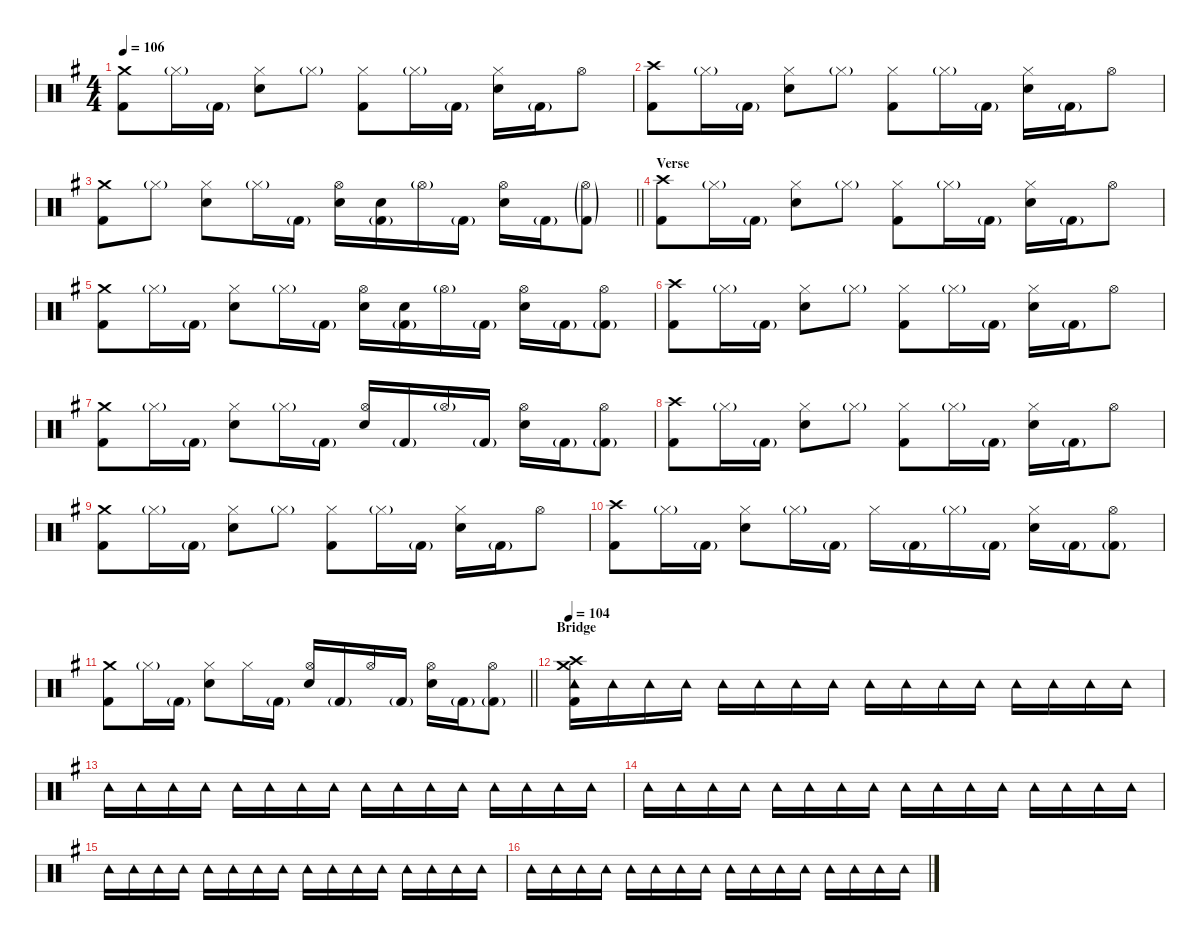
\defaultSystemsLayout 4
\hideDynamics
\bracketExtendMode nobrackets
\singleTrackTrackNamePolicy hidden
\multiTrackTrackNamePolicy hidden
\firstSystemTrackNameMode fullname
\firstSystemTrackNameOrientation horizontal
\otherSystemsTrackNameOrientation horizontal
\track ("Bill" "drm.") {instrument percussion}
\staff {score}
\articulation defaults
\ts (4 4)
\tempo 106
\clef neutral
\ks eminor
("Crash medium (hit)"{acc forcenatural} "Kick (hit) 2"{acc forcenatural}).8{dy f beam Down} "Hi-Hat (closed)"{g acc forcenatural}.16{dy mf beam Down} "Kick (hit) 2"{g acc forcenatural}.16{beam Down} ("Hi-Hat (closed)"{acc forcenatural} "Snare (hit) 2"{acc forcenatural}).8{dy f beam Down} "Hi-Hat (closed)"{g acc forcenatural}.8{dy mf beam Down} ("Hi-Hat (closed)"{acc forcenatural} "Kick (hit) 2"{acc forcenatural}).8{dy f beam Down} "Hi-Hat (closed)"{g acc forcenatural}.16{dy mf beam Down} "Kick (hit) 2"{g acc forcenatural}.16{beam Down} ("Hi-Hat (closed)"{acc forcenatural} "Snare (hit) 2"{acc forcenatural}).16{dy f beam Down} "Kick (hit) 2"{g acc forcenatural}.16{dy mf beam Down} "Hi-Hat (open)"{acc forcenatural}.8{beam Down} |
("Crash high (hit)"{acc forcenatural} "Kick (hit) 2"{acc forcenatural}).8{dy f beam Down} "Hi-Hat (closed)"{g acc forcenatural}.16{dy mf beam Down} "Kick (hit) 2"{g acc forcenatural}.16{beam Down} ("Hi-Hat (closed)"{acc forcenatural} "Snare (hit) 2"{acc forcenatural}).8{dy f beam Down} "Hi-Hat (closed)"{g acc forcenatural}.8{dy mf beam Down} ("Hi-Hat (closed)"{acc forcenatural} "Kick (hit) 2"{acc forcenatural}).8{dy f beam Down} "Hi-Hat (closed)"{g acc forcenatural}.16{dy mf beam Down} "Kick (hit) 2"{g acc forcenatural}.16{beam Down} ("Hi-Hat (closed)"{acc forcenatural} "Snare (hit) 2"{acc forcenatural}).16{dy f beam Down} "Kick (hit) 2"{g acc forcenatural}.16{dy mf beam Down} "Hi-Hat (open)"{acc forcenatural}.8{dy f beam Down} |
\barLineRight lightlight
("Crash medium (hit)"{acc forcenatural} "Kick (hit) 2"{acc forcenatural}).8{beam Down} "Hi-Hat (closed)"{g acc forcenatural}.8{dy mf beam Down} ("Hi-Hat (closed)"{acc forcenatural} "Snare (hit) 2"{acc forcenatural}).8{dy f beam Down} "Hi-Hat (closed)"{g acc forcenatural}.16{dy mf beam Down} "Kick (hit) 2"{g acc forcenatural}.16{beam Down} ("Hi-Hat (open)"{acc forcenatural} "Snare (hit) 2"{acc forcenatural}).16{dy f beam Down} ("Snare (hit) 2"{acc forcenatural} "Kick (hit) 2"{g acc forcenatural}).16{beam Down} "Hi-Hat (open)"{g acc forcenatural}.16{dy mf beam Down} "Kick (hit) 2"{g acc forcenatural}.16{beam Down} ("Hi-Hat (open)"{acc forcenatural} "Snare (hit) 2"{acc forcenatural}).16{dy f beam Down} "Kick (hit) 2"{g acc forcenatural}.16{dy mf beam Down} ("Hi-Hat (open)"{g acc forcenatural} "Kick (hit) 2"{g acc forcenatural}).8{beam Down} |
\section ("" "Verse")
("Crash high (hit)"{acc forcenatural} "Kick (hit) 2"{acc forcenatural}).8{dy f beam Down} "Hi-Hat (closed)"{g acc forcenatural}.16{dy mf beam Down} "Kick (hit) 2"{g acc forcenatural}.16{beam Down} ("Hi-Hat (closed)"{acc forcenatural} "Snare (hit) 2"{acc forcenatural}).8{dy f beam Down} "Hi-Hat (closed)"{g acc forcenatural}.8{dy mf beam Down} ("Hi-Hat (closed)"{acc forcenatural} "Kick (hit) 2"{acc forcenatural}).8{dy f beam Down} "Hi-Hat (closed)"{g acc forcenatural}.16{dy mf beam Down} "Kick (hit) 2"{g acc forcenatural}.16{beam Down} ("Hi-Hat (closed)"{acc forcenatural} "Snare (hit) 2"{acc forcenatural}).16{dy f beam Down} "Kick (hit) 2"{g acc forcenatural}.16{dy mf beam Down} "Hi-Hat (open)"{acc forcenatural}.8{dy f beam Down} |
("Crash medium (hit)"{acc forcenatural} "Kick (hit) 2"{acc forcenatural}).8{beam Down} "Hi-Hat (closed)"{g acc forcenatural}.16{dy mf beam Down} "Kick (hit) 2"{g acc forcenatural}.16{beam Down} ("Hi-Hat (closed)"{acc forcenatural} "Snare (hit) 2"{acc forcenatural}).8{dy f beam Down} "Hi-Hat (closed)"{g acc forcenatural}.16{dy mf beam Down} "Kick (hit) 2"{g acc forcenatural}.16{beam Down} ("Hi-Hat (open)"{acc forcenatural} "Snare (hit) 2"{acc forcenatural}).16{dy f beam Down} ("Snare (hit) 2"{acc forcenatural} "Kick (hit) 2"{g acc forcenatural}).16{beam Down} "Hi-Hat (open)"{g acc forcenatural}.16{beam Down} "Kick (hit) 2"{g acc forcenatural}.16{dy mf beam Down} ("Hi-Hat (open)"{acc forcenatural} "Snare (hit) 2"{acc forcenatural}).16{dy f beam Down} "Kick (hit) 2"{g acc forcenatural}.16{dy mf beam Down} ("Hi-Hat (open)"{acc forcenatural} "Kick (hit) 2"{g acc forcenatural}).8{dy f beam Down} |
("Crash high (hit)"{acc forcenatural} "Kick (hit) 2"{acc forcenatural}).8{beam Down} "Hi-Hat (closed)"{g acc forcenatural}.16{dy mf beam Down} "Kick (hit) 2"{g acc forcenatural}.16{beam Down} ("Hi-Hat (closed)"{acc forcenatural} "Snare (hit) 2"{acc forcenatural}).8{dy f beam Down} "Hi-Hat (closed)"{g acc forcenatural}.8{dy mf beam Down} ("Hi-Hat (closed)"{acc forcenatural} "Kick (hit) 2"{acc forcenatural}).8{dy f beam Down} "Hi-Hat (closed)"{g acc forcenatural}.16{dy mf beam Down} "Kick (hit) 2"{g acc forcenatural}.16{beam Down} ("Hi-Hat (closed)"{acc forcenatural} "Snare (hit) 2"{acc forcenatural}).16{dy f beam Down} "Kick (hit) 2"{g acc forcenatural}.16{dy mf beam Down} "Hi-Hat (open)"{acc forcenatural}.8{dy f beam Down} |
("Crash medium (hit)"{acc forcenatural} "Kick (hit) 2"{acc forcenatural}).8{beam Down} "Hi-Hat (closed)"{g acc forcenatural}.16{dy mf beam Down} "Kick (hit) 2"{g acc forcenatural}.16{beam Down} ("Hi-Hat (closed)"{acc forcenatural} "Snare (hit) 2"{acc forcenatural}).8{dy f beam Down} "Hi-Hat (closed)"{g acc forcenatural}.16{dy mf beam Down} "Kick (hit) 2"{g acc forcenatural}.16{beam Down} ("Hi-Hat (open)"{acc forcenatural} "Snare (hit) 2"{acc forcenatural}).16{dy f beam Up} "Kick (hit) 2"{g acc forcenatural}.16{dy mf beam Up} "Hi-Hat (open)"{g acc forcenatural}.16{dy f beam Up} "Kick (hit) 2"{g acc forcenatural}.16{dy mf beam Up} ("Hi-Hat (open)"{acc forcenatural} "Snare (hit) 2"{acc forcenatural}).16{dy f beam Down} "Kick (hit) 2"{g acc forcenatural}.16{dy mf beam Down} ("Hi-Hat (open)"{acc forcenatural} "Kick (hit) 2"{g acc forcenatural}).8{dy f beam Down} |
("Crash high (hit)"{acc forcenatural} "Kick (hit) 2"{acc forcenatural}).8{beam Down} "Hi-Hat (closed)"{g acc forcenatural}.16{dy mf beam Down} "Kick (hit) 2"{g acc forcenatural}.16{beam Down} ("Hi-Hat (closed)"{acc forcenatural} "Snare (hit) 2"{acc forcenatural}).8{dy f beam Down} "Hi-Hat (closed)"{g acc forcenatural}.8{dy mf beam Down} ("Hi-Hat (closed)"{acc forcenatural} "Kick (hit) 2"{acc forcenatural}).8{dy f beam Down} "Hi-Hat (closed)"{g acc forcenatural}.16{dy mf beam Down} "Kick (hit) 2"{g acc forcenatural}.16{beam Down} ("Hi-Hat (closed)"{acc forcenatural} "Snare (hit) 2"{acc forcenatural}).16{dy f beam Down} "Kick (hit) 2"{g acc forcenatural}.16{dy mf beam Down} "Hi-Hat (open)"{acc forcenatural}.8{dy f beam Down} |
("Crash medium (hit)"{acc forcenatural} "Kick (hit) 2"{acc forcenatural}).8{beam Down} "Hi-Hat (closed)"{g acc forcenatural}.16{dy mf beam Down} "Kick (hit) 2"{g acc forcenatural}.16{beam Down} ("Hi-Hat (closed)"{acc forcenatural} "Snare (hit) 2"{acc forcenatural}).8{dy f beam Down} "Hi-Hat (closed)"{g acc forcenatural}.8{dy mf beam Down} ("Hi-Hat (closed)"{acc forcenatural} "Kick (hit) 2"{acc forcenatural}).8{dy f beam Down} "Hi-Hat (closed)"{g acc forcenatural}.16{dy mf beam Down} "Kick (hit) 2"{g acc forcenatural}.16{beam Down} ("Hi-Hat (closed)"{acc forcenatural} "Snare (hit) 2"{acc forcenatural}).16{dy f beam Down} "Kick (hit) 2"{g acc forcenatural}.16{dy mf beam Down} "Hi-Hat (open)"{acc forcenatural}.8{dy f beam Down} |
("Crash high (hit)"{acc forcenatural} "Kick (hit) 2"{acc forcenatural}).8{beam Down} "Hi-Hat (closed)"{g acc forcenatural}.16{dy mf beam Down} "Kick (hit) 2"{g acc forcenatural}.16{beam Down} ("Hi-Hat (closed)"{acc forcenatural} "Snare (hit) 2"{acc forcenatural}).8{dy f beam Down} "Hi-Hat (closed)"{g acc forcenatural}.16{dy mf beam Down} "Kick (hit) 2"{g acc forcenatural}.16{beam Down} "Hi-Hat (closed)"{acc forcenatural}.16{dy f beam Down} "Kick (hit) 2"{g acc forcenatural}.16{dy mf beam Down} "Hi-Hat (closed)"{g acc forcenatural}.16{beam Down} "Kick (hit) 2"{g acc forcenatural}.16{beam Down} ("Hi-Hat (closed)"{acc forcenatural} "Snare (hit) 2"{acc forcenatural}).16{dy f beam Down} "Kick (hit) 2"{g acc forcenatural}.16{dy mf beam Down} ("Hi-Hat (open)"{acc forcenatural} "Kick (hit) 2"{g acc forcenatural}).8{dy f beam Down} |
\barLineRight lightlight
("Crash medium (hit)"{acc forcenatural} "Kick (hit) 2"{acc forcenatural}).8{beam Down} "Hi-Hat (closed)"{g acc forcenatural}.16{dy mf beam Down} "Kick (hit) 2"{g acc forcenatural}.16{beam Down} ("Hi-Hat (closed)"{acc forcenatural} "Snare (hit) 2"{acc forcenatural}).8{dy f beam Down} "Hi-Hat (closed)"{acc forcenatural}.16{beam Down} "Kick (hit) 2"{g acc forcenatural}.16{dy mf beam Down} ("Hi-Hat (open)"{acc forcenatural} "Snare (hit) 2"{acc forcenatural}).16{dy f beam Up} "Kick (hit) 2"{g acc forcenatural}.16{dy mf beam Up} "Hi-Hat (open)"{acc forcenatural}.16{beam Up} "Kick (hit) 2"{g acc forcenatural}.16{beam Up} ("Hi-Hat (open)"{acc forcenatural} "Snare (hit) 2"{acc forcenatural}).16{dy f beam Down} "Kick (hit) 2"{g acc forcenatural}.16{dy mf beam Down} ("Hi-Hat (open)"{acc forcenatural} "Kick (hit) 2"{g acc forcenatural}).8{beam Down} |
\section ("" "Bridge")
\tempo 104
("Crash high (hit)"{acc forcenatural} "Crash medium (hit)"{acc forcenatural} "Tambourine (hit)"{acc forcenatural} "Kick (hit) 2"{acc forcenatural}).16{dy f beam Down} "Tambourine (hit)"{acc forcenatural}.16{dy pp beam Down} "Tambourine (hit)"{acc forcenatural}.16{dy p beam Down} "Tambourine (hit)"{acc forcenatural}.16{dy pp beam Down} "Tambourine (hit)"{acc forcenatural}.16{dy mp beam Down} "Tambourine (hit)"{acc forcenatural}.16{dy pp beam Down} "Tambourine (hit)"{acc forcenatural}.16{dy p beam Down} "Tambourine (hit)"{acc forcenatural}.16{dy pp beam Down} "Tambourine (hit)"{acc forcenatural}.16{dy mp beam Down} "Tambourine (hit)"{acc forcenatural}.16{dy pp beam Down} "Tambourine (hit)"{acc forcenatural}.16{dy p beam Down} "Tambourine (hit)"{acc forcenatural}.16{dy pp beam Down} "Tambourine (hit)"{acc forcenatural}.16{dy mp beam Down} "Tambourine (hit)"{acc forcenatural}.16{dy pp beam Down} "Tambourine (hit)"{acc forcenatural}.16{dy p beam Down} "Tambourine (hit)"{acc forcenatural}.16{dy pp beam Down} |
"Tambourine (hit)"{acc forcenatural}.16{dy mp beam Down} "Tambourine (hit)"{acc forcenatural}.16{dy pp beam Down} "Tambourine (hit)"{acc forcenatural}.16{dy p beam Down} "Tambourine (hit)"{acc forcenatural}.16{dy pp beam Down} "Tambourine (hit)"{acc forcenatural}.16{dy mp beam Down} "Tambourine (hit)"{acc forcenatural}.16{dy pp beam Down} "Tambourine (hit)"{acc forcenatural}.16{dy p beam Down} "Tambourine (hit)"{acc forcenatural}.16{dy pp beam Down} "Tambourine (hit)"{acc forcenatural}.16{dy mp beam Down} "Tambourine (hit)"{acc forcenatural}.16{dy pp beam Down} "Tambourine (hit)"{acc forcenatural}.16{dy p beam Down} "Tambourine (hit)"{acc forcenatural}.16{dy pp beam Down} "Tambourine (hit)"{acc forcenatural}.16{dy mp beam Down} "Tambourine (hit)"{acc forcenatural}.16{dy pp beam Down} "Tambourine (hit)"{acc forcenatural}.16{dy p beam Down} "Tambourine (hit)"{acc forcenatural}.16{dy pp beam Down} |
"Tambourine (hit)"{acc forcenatural}.16{dy mp beam Down} "Tambourine (hit)"{acc forcenatural}.16{dy pp beam Down} "Tambourine (hit)"{acc forcenatural}.16{dy p beam Down} "Tambourine (hit)"{acc forcenatural}.16{dy pp beam Down} "Tambourine (hit)"{acc forcenatural}.16{dy mp beam Down} "Tambourine (hit)"{acc forcenatural}.16{dy pp beam Down} "Tambourine (hit)"{acc forcenatural}.16{dy p beam Down} "Tambourine (hit)"{acc forcenatural}.16{dy pp beam Down} "Tambourine (hit)"{acc forcenatural}.16{dy mp beam Down} "Tambourine (hit)"{acc forcenatural}.16{dy pp beam Down} "Tambourine (hit)"{acc forcenatural}.16{dy p beam Down} "Tambourine (hit)"{acc forcenatural}.16{dy pp beam Down} "Tambourine (hit)"{acc forcenatural}.16{dy mp beam Down} "Tambourine (hit)"{acc forcenatural}.16{dy pp beam Down} "Tambourine (hit)"{acc forcenatural}.16{dy p beam Down} "Tambourine (hit)"{acc forcenatural}.16{dy pp beam Down} |
"Tambourine (hit)"{acc forcenatural}.16{dy mp beam Down} "Tambourine (hit)"{acc forcenatural}.16{dy pp beam Down} "Tambourine (hit)"{acc forcenatural}.16{dy p beam Down} "Tambourine (hit)"{acc forcenatural}.16{dy pp beam Down} "Tambourine (hit)"{acc forcenatural}.16{dy mp beam Down} "Tambourine (hit)"{acc forcenatural}.16{dy pp beam Down} "Tambourine (hit)"{acc forcenatural}.16{dy p beam Down} "Tambourine (hit)"{acc forcenatural}.16{dy pp beam Down} "Tambourine (hit)"{acc forcenatural}.16{dy mp beam Down} "Tambourine (hit)"{acc forcenatural}.16{dy pp beam Down} "Tambourine (hit)"{acc forcenatural}.16{dy p beam Down} "Tambourine (hit)"{acc forcenatural}.16{dy pp beam Down} "Tambourine (hit)"{acc forcenatural}.16{dy mp beam Down} "Tambourine (hit)"{acc forcenatural}.16{dy pp beam Down} "Tambourine (hit)"{acc forcenatural}.16{dy p beam Down} "Tambourine (hit)"{acc forcenatural}.16{dy pp beam Down} |
"Tambourine (hit)"{acc forcenatural}.16{dy mp beam Down} "Tambourine (hit)"{acc forcenatural}.16{dy pp beam Down} "Tambourine (hit)"{acc forcenatural}.16{dy p beam Down} "Tambourine (hit)"{acc forcenatural}.16{dy pp beam Down} "Tambourine (hit)"{acc forcenatural}.16{dy mp beam Down} "Tambourine (hit)"{acc forcenatural}.16{dy pp beam Down} "Tambourine (hit)"{acc forcenatural}.16{dy p beam Down} "Tambourine (hit)"{acc forcenatural}.16{dy pp beam Down} "Tambourine (hit)"{acc forcenatural}.16{dy mp beam Down} "Tambourine (hit)"{acc forcenatural}.16{dy pp beam Down} "Tambourine (hit)"{acc forcenatural}.16{dy p beam Down} "Tambourine (hit)"{acc forcenatural}.16{dy pp beam Down} "Tambourine (hit)"{acc forcenatural}.16{dy mp beam Down} "Tambourine (hit)"{acc forcenatural}.16{dy pp beam Down} "Tambourine (hit)"{acc forcenatural}.16{dy p beam Down} "Tambourine (hit)"{acc forcenatural}.16{dy pp beam Down}
